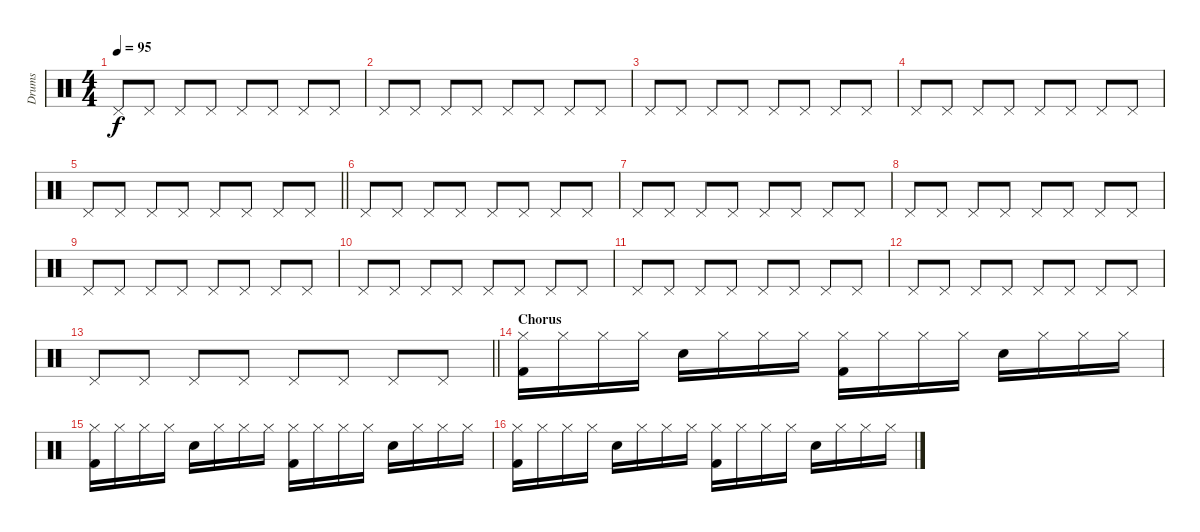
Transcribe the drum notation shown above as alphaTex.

\track ("Drums" "Drums") {instrument percussion}
\staff {score}
\articulation defaults
\ts (4 4)
\tempo 95
\clef neutral
\ks c "Pedal Hi-Hat (hit)".8{dy f} "Pedal Hi-Hat (hit)".8 "Pedal Hi-Hat (hit)".8 "Pedal Hi-Hat (hit)".8 "Pedal Hi-Hat (hit)".8 "Pedal Hi-Hat (hit)".8 "Pedal Hi-Hat (hit)".8 "Pedal Hi-Hat (hit)".8
|
"Pedal Hi-Hat (hit)".8 "Pedal Hi-Hat (hit)".8 "Pedal Hi-Hat (hit)".8 "Pedal Hi-Hat (hit)".8 "Pedal Hi-Hat (hit)".8 "Pedal Hi-Hat (hit)".8 "Pedal Hi-Hat (hit)".8 "Pedal Hi-Hat (hit)".8 |
"Pedal Hi-Hat (hit)".8 "Pedal Hi-Hat (hit)".8 "Pedal Hi-Hat (hit)".8 "Pedal Hi-Hat (hit)".8 "Pedal Hi-Hat (hit)".8 "Pedal Hi-Hat (hit)".8 "Pedal Hi-Hat (hit)".8 "Pedal Hi-Hat (hit)".8 |
"Pedal Hi-Hat (hit)".8 "Pedal Hi-Hat (hit)".8 "Pedal Hi-Hat (hit)".8 "Pedal Hi-Hat (hit)".8 "Pedal Hi-Hat (hit)".8 "Pedal Hi-Hat (hit)".8 "Pedal Hi-Hat (hit)".8 "Pedal Hi-Hat (hit)".8 |
\barLineRight lightlight "Pedal Hi-Hat (hit)".8 "Pedal Hi-Hat (hit)".8 "Pedal Hi-Hat (hit)".8 "Pedal Hi-Hat (hit)".8 "Pedal Hi-Hat (hit)".8 "Pedal Hi-Hat (hit)".8 "Pedal Hi-Hat (hit)".8 "Pedal Hi-Hat (hit)".8
|
"Pedal Hi-Hat (hit)".8 "Pedal Hi-Hat (hit)".8 "Pedal Hi-Hat (hit)".8 "Pedal Hi-Hat (hit)".8 "Pedal Hi-Hat (hit)".8 "Pedal Hi-Hat (hit)".8 "Pedal Hi-Hat (hit)".8 "Pedal Hi-Hat (hit)".8 |
"Pedal Hi-Hat (hit)".8 "Pedal Hi-Hat (hit)".8 "Pedal Hi-Hat (hit)".8 "Pedal Hi-Hat (hit)".8 "Pedal Hi-Hat (hit)".8 "Pedal Hi-Hat (hit)".8 "Pedal Hi-Hat (hit)".8 "Pedal Hi-Hat (hit)".8 |
"Pedal Hi-Hat (hit)".8 "Pedal Hi-Hat (hit)".8 "Pedal Hi-Hat (hit)".8 "Pedal Hi-Hat (hit)".8 "Pedal Hi-Hat (hit)".8 "Pedal Hi-Hat (hit)".8 "Pedal Hi-Hat (hit)".8 "Pedal Hi-Hat (hit)".8 |
"Pedal Hi-Hat (hit)".8 "Pedal Hi-Hat (hit)".8 "Pedal Hi-Hat (hit)".8 "Pedal Hi-Hat (hit)".8 "Pedal Hi-Hat (hit)".8 "Pedal Hi-Hat (hit)".8 "Pedal Hi-Hat (hit)".8 "Pedal Hi-Hat (hit)".8 |
"Pedal Hi-Hat (hit)".8 "Pedal Hi-Hat (hit)".8 "Pedal Hi-Hat (hit)".8 "Pedal Hi-Hat (hit)".8 "Pedal Hi-Hat (hit)".8 "Pedal Hi-Hat (hit)".8 "Pedal Hi-Hat (hit)".8 "Pedal Hi-Hat (hit)".8 |
"Pedal Hi-Hat (hit)".8 "Pedal Hi-Hat (hit)".8 "Pedal Hi-Hat (hit)".8 "Pedal Hi-Hat (hit)".8 "Pedal Hi-Hat (hit)".8 "Pedal Hi-Hat (hit)".8 "Pedal Hi-Hat (hit)".8 "Pedal Hi-Hat (hit)".8 |
"Pedal Hi-Hat (hit)".8 "Pedal Hi-Hat (hit)".8 "Pedal Hi-Hat (hit)".8 "Pedal Hi-Hat (hit)".8 "Pedal Hi-Hat (hit)".8 "Pedal Hi-Hat (hit)".8 "Pedal Hi-Hat (hit)".8 "Pedal Hi-Hat (hit)".8 |
\barLineRight lightlight "Pedal Hi-Hat (hit)".8 "Pedal Hi-Hat (hit)".8 "Pedal Hi-Hat (hit)".8 "Pedal Hi-Hat (hit)".8 "Pedal Hi-Hat (hit)".8 "Pedal Hi-Hat (hit)".8 "Pedal Hi-Hat (hit)".8 "Pedal Hi-Hat (hit)".8
|
\section ("" "Chorus")
("Hi-Hat (closed)" "Kick (hit) 2").16 "Hi-Hat (closed)".16 "Hi-Hat (closed)".16 "Hi-Hat (closed)".16 "Snare (hit) 2".16 "Hi-Hat (closed)".16 "Hi-Hat (closed)".16 "Hi-Hat (closed)".16 ("Hi-Hat (closed)" "Kick (hit) 2").16 "Hi-Hat (closed)".16 "Hi-Hat (closed)".16 "Hi-Hat (closed)".16 "Snare (hit) 2".16 "Hi-Hat (closed)".16 "Hi-Hat (closed)".16 "Hi-Hat (closed)".16 |
("Hi-Hat (closed)" "Kick (hit) 2").16 "Hi-Hat (closed)".16 "Hi-Hat (closed)".16 "Hi-Hat (closed)".16 "Snare (hit) 2".16 "Hi-Hat (closed)".16 "Hi-Hat (closed)".16 "Hi-Hat (closed)".16 ("Hi-Hat (closed)" "Kick (hit) 2").16 "Hi-Hat (closed)".16 "Hi-Hat (closed)".16 "Hi-Hat (closed)".16 "Snare (hit) 2".16 "Hi-Hat (closed)".16 "Hi-Hat (closed)".16 "Hi-Hat (closed)".16 |
("Hi-Hat (closed)" "Kick (hit) 2").16 "Hi-Hat (closed)".16 "Hi-Hat (closed)".16 "Hi-Hat (closed)".16 "Snare (hit) 2".16 "Hi-Hat (closed)".16 "Hi-Hat (closed)".16 "Hi-Hat (closed)".16 ("Hi-Hat (closed)" "Kick (hit) 2").16 "Hi-Hat (closed)".16 "Hi-Hat (closed)".16 "Hi-Hat (closed)".16 "Snare (hit) 2".16 "Hi-Hat (closed)".16 "Hi-Hat (closed)".16 "Hi-Hat (closed)".16
